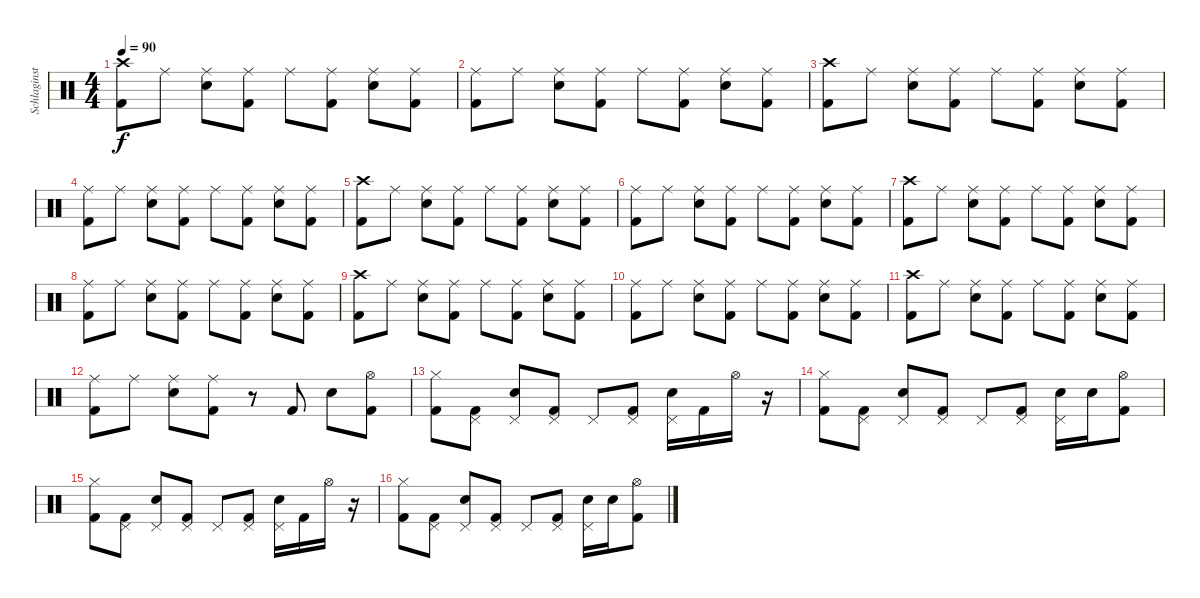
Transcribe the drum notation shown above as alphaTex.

\track ("Schlaginstrumente - Auswahl" "Schlaginst") {instrument percussion}
\staff {score}
\articulation defaults
\ts (4 4)
\tempo 90
\clef neutral
\ks c
("Crash high (hit)" "Kick (hit) 2").8{dy f} "Ride (middle)".8 ("Ride (middle)" "Snare (hit) 2").8 ("Ride (middle)" "Kick (hit) 2").8 "Ride (middle)".8 ("Ride (middle)" "Kick (hit) 2").8 ("Ride (middle)" "Snare (hit) 2").8 ("Ride (middle)" "Kick (hit) 2").8 |
("Ride (middle)" "Kick (hit) 2").8 "Ride (middle)".8 ("Ride (middle)" "Snare (hit) 2").8 ("Ride (middle)" "Kick (hit) 2").8 "Ride (middle)".8 ("Ride (middle)" "Kick (hit) 2").8 ("Ride (middle)" "Snare (hit) 2").8 ("Ride (middle)" "Kick (hit) 2").8 |
("Crash high (hit)" "Kick (hit) 2").8 "Ride (middle)".8 ("Ride (middle)" "Snare (hit) 2").8 ("Ride (middle)" "Kick (hit) 2").8 "Ride (middle)".8 ("Ride (middle)" "Kick (hit) 2").8 ("Ride (middle)" "Snare (hit) 2").8 ("Ride (middle)" "Kick (hit) 2").8 |
("Ride (middle)" "Kick (hit) 2").8 "Ride (middle)".8 ("Ride (middle)" "Snare (hit) 2").8 ("Ride (middle)" "Kick (hit) 2").8 "Ride (middle)".8 ("Ride (middle)" "Kick (hit) 2").8 ("Ride (middle)" "Snare (hit) 2").8 ("Ride (middle)" "Kick (hit) 2").8 |
("Crash high (hit)" "Kick (hit) 2").8 "Ride (middle)".8 ("Ride (middle)" "Snare (hit) 2").8 ("Ride (middle)" "Kick (hit) 2").8 "Ride (middle)".8 ("Ride (middle)" "Kick (hit) 2").8 ("Ride (middle)" "Snare (hit) 2").8 ("Ride (middle)" "Kick (hit) 2").8 |
("Ride (middle)" "Kick (hit) 2").8 "Ride (middle)".8 ("Ride (middle)" "Snare (hit) 2").8 ("Ride (middle)" "Kick (hit) 2").8 "Ride (middle)".8 ("Ride (middle)" "Kick (hit) 2").8 ("Ride (middle)" "Snare (hit) 2").8 ("Ride (middle)" "Kick (hit) 2").8 |
("Crash high (hit)" "Kick (hit) 2").8 "Ride (middle)".8 ("Ride (middle)" "Snare (hit) 2").8 ("Ride (middle)" "Kick (hit) 2").8 "Ride (middle)".8 ("Ride (middle)" "Kick (hit) 2").8 ("Ride (middle)" "Snare (hit) 2").8 ("Ride (middle)" "Kick (hit) 2").8 |
("Ride (middle)" "Kick (hit) 2").8 "Ride (middle)".8 ("Ride (middle)" "Snare (hit) 2").8 ("Ride (middle)" "Kick (hit) 2").8 "Ride (middle)".8 ("Ride (middle)" "Kick (hit) 2").8 ("Ride (middle)" "Snare (hit) 2").8 ("Ride (middle)" "Kick (hit) 2").8 |
("Crash high (hit)" "Kick (hit) 2").8 "Ride (middle)".8 ("Ride (middle)" "Snare (hit) 2").8 ("Ride (middle)" "Kick (hit) 2").8 "Ride (middle)".8 ("Ride (middle)" "Kick (hit) 2").8 ("Ride (middle)" "Snare (hit) 2").8 ("Ride (middle)" "Kick (hit) 2").8 |
("Ride (middle)" "Kick (hit) 2").8 "Ride (middle)".8 ("Ride (middle)" "Snare (hit) 2").8 ("Ride (middle)" "Kick (hit) 2").8 "Ride (middle)".8 ("Ride (middle)" "Kick (hit) 2").8 ("Ride (middle)" "Snare (hit) 2").8 ("Ride (middle)" "Kick (hit) 2").8 |
("Crash high (hit)" "Kick (hit) 2").8 "Ride (middle)".8 ("Ride (middle)" "Snare (hit) 2").8 ("Ride (middle)" "Kick (hit) 2").8 "Ride (middle)".8 ("Ride (middle)" "Kick (hit) 2").8 ("Ride (middle)" "Snare (hit) 2").8 ("Ride (middle)" "Kick (hit) 2").8 |
("Ride (middle)" "Kick (hit) 2").8 "Ride (middle)".8 ("Ride (middle)" "Snare (hit) 2").8 ("Ride (middle)" "Kick (hit) 2").8 r.8 "Kick (hit) 2".8 "Snare (hit) 2".8 ("Hi-Hat (open)" "Kick (hit) 2").8 |
("Hi-Hat (closed)" "Kick (hit) 2").8 ("Pedal Hi-Hat (hit)" "Kick (hit) 2").8 ("Pedal Hi-Hat (hit)" "Snare (hit) 2").8 ("Pedal Hi-Hat (hit)" "Kick (hit) 2").8 "Pedal Hi-Hat (hit)".8 ("Pedal Hi-Hat (hit)" "Kick (hit) 2").8 ("Pedal Hi-Hat (hit)" "Snare (hit) 2").16 "Kick (hit) 2".16 "Hi-Hat (open)".16 r.16 |
("Hi-Hat (closed)" "Kick (hit) 2").8 ("Pedal Hi-Hat (hit)" "Kick (hit) 2").8 ("Pedal Hi-Hat (hit)" "Snare (hit) 2").8 ("Pedal Hi-Hat (hit)" "Kick (hit) 2").8 "Pedal Hi-Hat (hit)".8 ("Pedal Hi-Hat (hit)" "Kick (hit) 2").8 ("Pedal Hi-Hat (hit)" "Snare (hit) 2").16 "Snare (hit) 2".16 ("Hi-Hat (open)" "Kick (hit) 2").8 |
("Hi-Hat (closed)" "Kick (hit) 2").8 ("Pedal Hi-Hat (hit)" "Kick (hit) 2").8 ("Pedal Hi-Hat (hit)" "Snare (hit) 2").8 ("Pedal Hi-Hat (hit)" "Kick (hit) 2").8 "Pedal Hi-Hat (hit)".8 ("Pedal Hi-Hat (hit)" "Kick (hit) 2").8 ("Pedal Hi-Hat (hit)" "Snare (hit) 2").16 "Kick (hit) 2".16 "Hi-Hat (open)".16 r.16 |
("Hi-Hat (closed)" "Kick (hit) 2").8 ("Pedal Hi-Hat (hit)" "Kick (hit) 2").8 ("Pedal Hi-Hat (hit)" "Snare (hit) 2").8 ("Pedal Hi-Hat (hit)" "Kick (hit) 2").8 "Pedal Hi-Hat (hit)".8 ("Pedal Hi-Hat (hit)" "Kick (hit) 2").8 ("Pedal Hi-Hat (hit)" "Snare (hit) 2").16 "Snare (hit) 2".16 ("Hi-Hat (open)" "Kick (hit) 2").8
